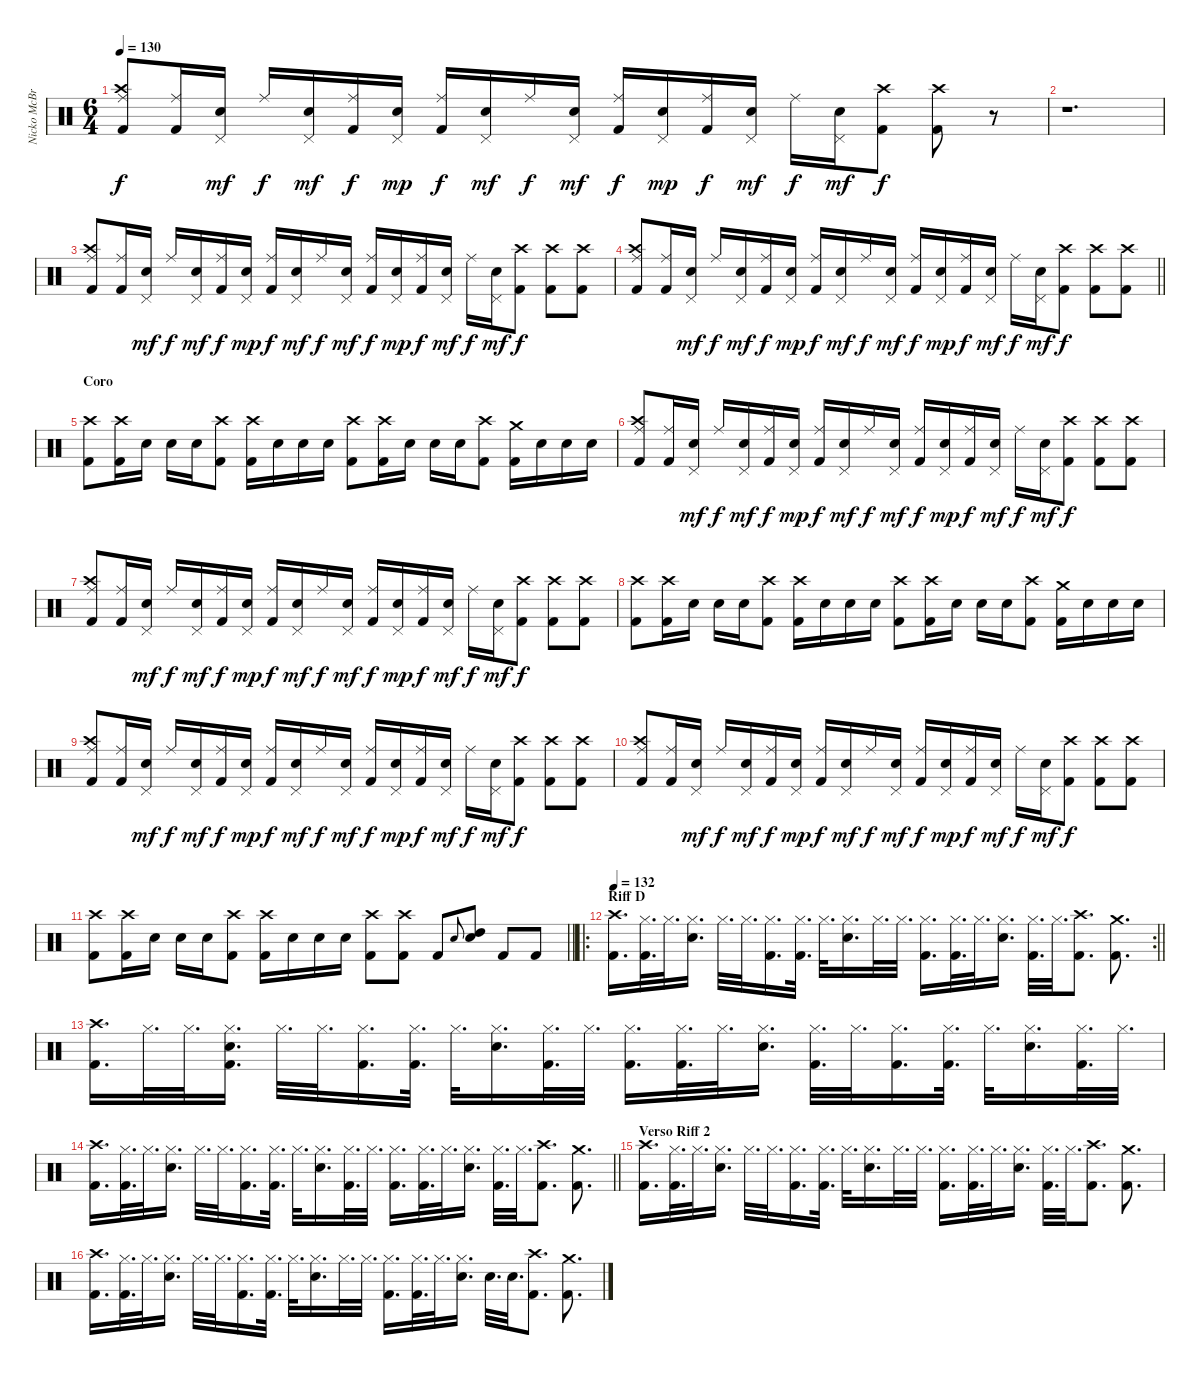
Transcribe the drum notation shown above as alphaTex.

\track ("Nicko McBrain" "Nicko McBr") {instrument percussion}
\staff {score}
\articulation defaults
\ts (6 4)
\tempo 130
\clef neutral
\ks c
("Ride (middle)" "Crash high (hit)" "Kick (hit) 2").8{dy f} ("Ride (middle)" "Kick (hit) 2").16 ("Pedal Hi-Hat (hit)" "Snare (hit) 2").16{dy mf} "Ride (middle)".16{dy f} ("Pedal Hi-Hat (hit)" "Snare (hit) 2").16{dy mf} ("Ride (middle)" "Kick (hit) 2").16{dy f} ("Pedal Hi-Hat (hit)" "Snare (hit) 2").16{dy mp} ("Ride (middle)" "Kick (hit) 2").16{dy f} ("Pedal Hi-Hat (hit)" "Snare (hit) 2").16{dy mf} "Ride (middle)".16{dy f} ("Pedal Hi-Hat (hit)" "Snare (hit) 2").16{dy mf} ("Ride (middle)" "Kick (hit) 2").16{dy f} ("Pedal Hi-Hat (hit)" "Snare (hit) 2").16{dy mp} ("Ride (middle)" "Kick (hit) 2").16{dy f} ("Pedal Hi-Hat (hit)" "Snare (hit) 2").16{dy mf} "Ride (middle)".16{dy f} ("Pedal Hi-Hat (hit)" "Snare (hit) 2").16{dy mf} ("Crash high (hit)" "Kick (hit) 2").8{dy f} ("Crash high (hit)" "Kick (hit) 2").8 r.8 |
r.1{d} |
("Ride (middle)" "Crash high (hit)" "Kick (hit) 2").8 ("Ride (middle)" "Kick (hit) 2").16 ("Pedal Hi-Hat (hit)" "Snare (hit) 2").16{dy mf} "Ride (middle)".16{dy f} ("Pedal Hi-Hat (hit)" "Snare (hit) 2").16{dy mf} ("Ride (middle)" "Kick (hit) 2").16{dy f} ("Pedal Hi-Hat (hit)" "Snare (hit) 2").16{dy mp} ("Ride (middle)" "Kick (hit) 2").16{dy f} ("Pedal Hi-Hat (hit)" "Snare (hit) 2").16{dy mf} "Ride (middle)".16{dy f} ("Pedal Hi-Hat (hit)" "Snare (hit) 2").16{dy mf} ("Ride (middle)" "Kick (hit) 2").16{dy f} ("Pedal Hi-Hat (hit)" "Snare (hit) 2").16{dy mp} ("Ride (middle)" "Kick (hit) 2").16{dy f} ("Pedal Hi-Hat (hit)" "Snare (hit) 2").16{dy mf} "Ride (middle)".16{dy f} ("Pedal Hi-Hat (hit)" "Snare (hit) 2").16{dy mf} ("Crash high (hit)" "Kick (hit) 2").8{dy f} ("Crash high (hit)" "Kick (hit) 2").8 ("Crash high (hit)" "Kick (hit) 2").8 |
\barLineRight lightlight
("Ride (middle)" "Crash high (hit)" "Kick (hit) 2").8 ("Ride (middle)" "Kick (hit) 2").16 ("Pedal Hi-Hat (hit)" "Snare (hit) 2").16{dy mf} "Ride (middle)".16{dy f} ("Pedal Hi-Hat (hit)" "Snare (hit) 2").16{dy mf} ("Ride (middle)" "Kick (hit) 2").16{dy f} ("Pedal Hi-Hat (hit)" "Snare (hit) 2").16{dy mp} ("Ride (middle)" "Kick (hit) 2").16{dy f} ("Pedal Hi-Hat (hit)" "Snare (hit) 2").16{dy mf} "Ride (middle)".16{dy f} ("Pedal Hi-Hat (hit)" "Snare (hit) 2").16{dy mf} ("Ride (middle)" "Kick (hit) 2").16{dy f} ("Pedal Hi-Hat (hit)" "Snare (hit) 2").16{dy mp} ("Ride (middle)" "Kick (hit) 2").16{dy f} ("Pedal Hi-Hat (hit)" "Snare (hit) 2").16{dy mf} "Ride (middle)".16{dy f} ("Pedal Hi-Hat (hit)" "Snare (hit) 2").16{dy mf} ("Crash high (hit)" "Kick (hit) 2").8{dy f} ("Crash high (hit)" "Kick (hit) 2").8 ("Crash high (hit)" "Kick (hit) 2").8 |
\section ("" "Coro")
("Crash high (hit)" "Kick (hit) 2").8 ("Crash high (hit)" "Kick (hit) 2").16 "Snare (hit) 2".16 "Snare (hit) 2".16 "Snare (hit) 2".16 ("Crash high (hit)" "Kick (hit) 2").8 ("Crash high (hit)" "Kick (hit) 2").16 "Snare (hit) 2".16 "Snare (hit) 2".16 "Snare (hit) 2".16 ("Crash high (hit)" "Kick (hit) 2").8 ("Crash high (hit)" "Kick (hit) 2").16 "Snare (hit) 2".16 "Snare (hit) 2".16 "Snare (hit) 2".16 ("Crash high (hit)" "Kick (hit) 2").8 ("Crash medium (hit)" "Kick (hit) 2").16 "Snare (hit) 2".16 "Snare (hit) 2".16 "Snare (hit) 2".16 |
("Ride (middle)" "Crash high (hit)" "Kick (hit) 2").8 ("Ride (middle)" "Kick (hit) 2").16 ("Pedal Hi-Hat (hit)" "Snare (hit) 2").16{dy mf} "Ride (middle)".16{dy f} ("Pedal Hi-Hat (hit)" "Snare (hit) 2").16{dy mf} ("Ride (middle)" "Kick (hit) 2").16{dy f} ("Pedal Hi-Hat (hit)" "Snare (hit) 2").16{dy mp} ("Ride (middle)" "Kick (hit) 2").16{dy f} ("Pedal Hi-Hat (hit)" "Snare (hit) 2").16{dy mf} "Ride (middle)".16{dy f} ("Pedal Hi-Hat (hit)" "Snare (hit) 2").16{dy mf} ("Ride (middle)" "Kick (hit) 2").16{dy f} ("Pedal Hi-Hat (hit)" "Snare (hit) 2").16{dy mp} ("Ride (middle)" "Kick (hit) 2").16{dy f} ("Pedal Hi-Hat (hit)" "Snare (hit) 2").16{dy mf} "Ride (middle)".16{dy f} ("Pedal Hi-Hat (hit)" "Snare (hit) 2").16{dy mf} ("Crash high (hit)" "Kick (hit) 2").8{dy f} ("Crash high (hit)" "Kick (hit) 2").8 ("Crash high (hit)" "Kick (hit) 2").8 |
("Ride (middle)" "Crash high (hit)" "Kick (hit) 2").8 ("Ride (middle)" "Kick (hit) 2").16 ("Pedal Hi-Hat (hit)" "Snare (hit) 2").16{dy mf} "Ride (middle)".16{dy f} ("Pedal Hi-Hat (hit)" "Snare (hit) 2").16{dy mf} ("Ride (middle)" "Kick (hit) 2").16{dy f} ("Pedal Hi-Hat (hit)" "Snare (hit) 2").16{dy mp} ("Ride (middle)" "Kick (hit) 2").16{dy f} ("Pedal Hi-Hat (hit)" "Snare (hit) 2").16{dy mf} "Ride (middle)".16{dy f} ("Pedal Hi-Hat (hit)" "Snare (hit) 2").16{dy mf} ("Ride (middle)" "Kick (hit) 2").16{dy f} ("Pedal Hi-Hat (hit)" "Snare (hit) 2").16{dy mp} ("Ride (middle)" "Kick (hit) 2").16{dy f} ("Pedal Hi-Hat (hit)" "Snare (hit) 2").16{dy mf} "Ride (middle)".16{dy f} ("Pedal Hi-Hat (hit)" "Snare (hit) 2").16{dy mf} ("Crash high (hit)" "Kick (hit) 2").8{dy f} ("Crash high (hit)" "Kick (hit) 2").8 ("Crash high (hit)" "Kick (hit) 2").8 |
("Crash high (hit)" "Kick (hit) 2").8 ("Crash high (hit)" "Kick (hit) 2").16 "Snare (hit) 2".16 "Snare (hit) 2".16 "Snare (hit) 2".16 ("Crash high (hit)" "Kick (hit) 2").8 ("Crash high (hit)" "Kick (hit) 2").16 "Snare (hit) 2".16 "Snare (hit) 2".16 "Snare (hit) 2".16 ("Crash high (hit)" "Kick (hit) 2").8 ("Crash high (hit)" "Kick (hit) 2").16 "Snare (hit) 2".16 "Snare (hit) 2".16 "Snare (hit) 2".16 ("Crash high (hit)" "Kick (hit) 2").8 ("Crash medium (hit)" "Kick (hit) 2").16 "Snare (hit) 2".16 "Snare (hit) 2".16 "Snare (hit) 2".16 |
("Ride (middle)" "Crash high (hit)" "Kick (hit) 2").8 ("Ride (middle)" "Kick (hit) 2").16 ("Pedal Hi-Hat (hit)" "Snare (hit) 2").16{dy mf} "Ride (middle)".16{dy f} ("Pedal Hi-Hat (hit)" "Snare (hit) 2").16{dy mf} ("Ride (middle)" "Kick (hit) 2").16{dy f} ("Pedal Hi-Hat (hit)" "Snare (hit) 2").16{dy mp} ("Ride (middle)" "Kick (hit) 2").16{dy f} ("Pedal Hi-Hat (hit)" "Snare (hit) 2").16{dy mf} "Ride (middle)".16{dy f} ("Pedal Hi-Hat (hit)" "Snare (hit) 2").16{dy mf} ("Ride (middle)" "Kick (hit) 2").16{dy f} ("Pedal Hi-Hat (hit)" "Snare (hit) 2").16{dy mp} ("Ride (middle)" "Kick (hit) 2").16{dy f} ("Pedal Hi-Hat (hit)" "Snare (hit) 2").16{dy mf} "Ride (middle)".16{dy f} ("Pedal Hi-Hat (hit)" "Snare (hit) 2").16{dy mf} ("Crash high (hit)" "Kick (hit) 2").8{dy f} ("Crash high (hit)" "Kick (hit) 2").8 ("Crash high (hit)" "Kick (hit) 2").8 |
("Ride (middle)" "Crash high (hit)" "Kick (hit) 2").8 ("Ride (middle)" "Kick (hit) 2").16 ("Pedal Hi-Hat (hit)" "Snare (hit) 2").16{dy mf} "Ride (middle)".16{dy f} ("Pedal Hi-Hat (hit)" "Snare (hit) 2").16{dy mf} ("Ride (middle)" "Kick (hit) 2").16{dy f} ("Pedal Hi-Hat (hit)" "Snare (hit) 2").16{dy mp} ("Ride (middle)" "Kick (hit) 2").16{dy f} ("Pedal Hi-Hat (hit)" "Snare (hit) 2").16{dy mf} "Ride (middle)".16{dy f} ("Pedal Hi-Hat (hit)" "Snare (hit) 2").16{dy mf} ("Ride (middle)" "Kick (hit) 2").16{dy f} ("Pedal Hi-Hat (hit)" "Snare (hit) 2").16{dy mp} ("Ride (middle)" "Kick (hit) 2").16{dy f} ("Pedal Hi-Hat (hit)" "Snare (hit) 2").16{dy mf} "Ride (middle)".16{dy f} ("Pedal Hi-Hat (hit)" "Snare (hit) 2").16{dy mf} ("Crash high (hit)" "Kick (hit) 2").8{dy f} ("Crash high (hit)" "Kick (hit) 2").8 ("Crash high (hit)" "Kick (hit) 2").8 |
\barLineRight lightlight
("Crash high (hit)" "Kick (hit) 2").8 ("Crash high (hit)" "Kick (hit) 2").16 "Snare (hit) 2".16 "Snare (hit) 2".16 "Snare (hit) 2".16 ("Crash high (hit)" "Kick (hit) 2").8 ("Crash high (hit)" "Kick (hit) 2").16 "Snare (hit) 2".16 "Snare (hit) 2".16 "Snare (hit) 2".16 ("Crash high (hit)" "Kick (hit) 2").8 ("Crash high (hit)" "Kick (hit) 2").8 "Kick (hit) 2".8 "Snare (hit) 2".8{gr onbeat} ("Snare (hit) 2" "High Tom (hit)").8 "Kick (hit) 2".8 "Kick (hit) 2".8 |
\ro
\rc 2
\section ("" "Riff D")
\tempo 132
\barLineRight lightlight
("Crash high (hit)" "Kick (hit) 2").16{d} ("Hi-Hat (closed)" "Kick (hit) 2").32{d} "Hi-Hat (closed)".32{d} ("Hi-Hat (closed)" "Snare (hit) 2").16{d} "Hi-Hat (closed)".32{d} "Hi-Hat (closed)".32{d} ("Hi-Hat (closed)" "Kick (hit) 2").16{d} ("Hi-Hat (closed)" "Kick (hit) 2").32{d} "Hi-Hat (closed)".32{d} ("Hi-Hat (closed)" "Snare (hit) 2").16{d} "Hi-Hat (closed)".32{d} "Hi-Hat (closed)".32{d} ("Hi-Hat (closed)" "Kick (hit) 2").16{d} ("Hi-Hat (closed)" "Kick (hit) 2").32{d} "Hi-Hat (closed)".32{d} ("Hi-Hat (closed)" "Snare (hit) 2").16{d} ("Hi-Hat (closed)" "Kick (hit) 2").32{d} "Hi-Hat (closed)".32{d} ("Crash high (hit)" "Kick (hit) 2").8{d} ("Crash medium (hit)" "Kick (hit) 2").8{d} |
("Crash high (hit)" "Kick (hit) 2").16{d} "Hi-Hat (closed)".32{d} "Hi-Hat (closed)".32{d} ("Hi-Hat (closed)" "Snare (hit) 2" "Kick (hit) 2").16{d} "Hi-Hat (closed)".32{d} "Hi-Hat (closed)".32{d} ("Hi-Hat (closed)" "Kick (hit) 2").16{d} ("Hi-Hat (closed)" "Kick (hit) 2").32{d} "Hi-Hat (closed)".32{d} ("Hi-Hat (closed)" "Snare (hit) 2").16{d} ("Hi-Hat (closed)" "Kick (hit) 2").32{d} "Hi-Hat (closed)".32{d} ("Hi-Hat (closed)" "Kick (hit) 2").16{d} ("Hi-Hat (closed)" "Kick (hit) 2").32{d} "Hi-Hat (closed)".32{d} ("Hi-Hat (closed)" "Snare (hit) 2").16{d} ("Hi-Hat (closed)" "Kick (hit) 2").32{d} "Hi-Hat (closed)".32{d} ("Hi-Hat (closed)" "Kick (hit) 2").16{d} ("Hi-Hat (closed)" "Kick (hit) 2").32{d} "Hi-Hat (closed)".32{d} ("Hi-Hat (closed)" "Snare (hit) 2").16{d} ("Hi-Hat (closed)" "Kick (hit) 2").32{d} "Hi-Hat (closed)".32{d} |
\barLineRight lightlight
("Crash high (hit)" "Kick (hit) 2").16{d} ("Hi-Hat (closed)" "Kick (hit) 2").32{d} "Hi-Hat (closed)".32{d} ("Hi-Hat (closed)" "Snare (hit) 2").16{d} "Hi-Hat (closed)".32{d} "Hi-Hat (closed)".32{d} ("Hi-Hat (closed)" "Kick (hit) 2").16{d} ("Hi-Hat (closed)" "Kick (hit) 2").32{d} "Hi-Hat (closed)".32{d} ("Hi-Hat (closed)" "Snare (hit) 2").16{d} ("Hi-Hat (closed)" "Kick (hit) 2").32{d} "Hi-Hat (closed)".32{d} ("Hi-Hat (closed)" "Kick (hit) 2").16{d} ("Hi-Hat (closed)" "Kick (hit) 2").32{d} "Hi-Hat (closed)".32{d} ("Hi-Hat (closed)" "Snare (hit) 2").16{d} ("Hi-Hat (closed)" "Kick (hit) 2").32{d} "Hi-Hat (closed)".32{d} ("Crash high (hit)" "Kick (hit) 2").8{d} ("Crash medium (hit)" "Kick (hit) 2").8{d} |
\section ("" "Verso Riff 2")
("Crash high (hit)" "Kick (hit) 2").16{d} ("Hi-Hat (closed)" "Kick (hit) 2").32{d} "Hi-Hat (closed)".32{d} ("Hi-Hat (closed)" "Snare (hit) 2").16{d} "Hi-Hat (closed)".32{d} "Hi-Hat (closed)".32{d} ("Hi-Hat (closed)" "Kick (hit) 2").16{d} ("Hi-Hat (closed)" "Kick (hit) 2").32{d} "Hi-Hat (closed)".32{d} ("Hi-Hat (closed)" "Snare (hit) 2").16{d} "Hi-Hat (closed)".32{d} "Hi-Hat (closed)".32{d} ("Hi-Hat (closed)" "Kick (hit) 2").16{d} ("Hi-Hat (closed)" "Kick (hit) 2").32{d} "Hi-Hat (closed)".32{d} ("Hi-Hat (closed)" "Snare (hit) 2").16{d} ("Hi-Hat (closed)" "Kick (hit) 2").32{d} "Hi-Hat (closed)".32{d} ("Crash high (hit)" "Kick (hit) 2").8{d} ("Crash medium (hit)" "Kick (hit) 2").8{d} |
("Crash high (hit)" "Kick (hit) 2").16{d} ("Hi-Hat (closed)" "Kick (hit) 2").32{d} "Hi-Hat (closed)".32{d} ("Hi-Hat (closed)" "Snare (hit) 2").16{d} "Hi-Hat (closed)".32{d} "Hi-Hat (closed)".32{d} ("Hi-Hat (closed)" "Kick (hit) 2").16{d} ("Hi-Hat (closed)" "Kick (hit) 2").32{d} "Hi-Hat (closed)".32{d} ("Hi-Hat (closed)" "Snare (hit) 2").16{d} "Hi-Hat (closed)".32{d} "Hi-Hat (closed)".32{d} ("Hi-Hat (closed)" "Kick (hit) 2").16{d} ("Hi-Hat (closed)" "Kick (hit) 2").32{d} "Hi-Hat (closed)".32{d} ("Hi-Hat (closed)" "Snare (hit) 2").16{d} "Snare (hit) 2".32{d} "Snare (hit) 2".32{d} ("Crash high (hit)" "Kick (hit) 2").8{d} ("Crash medium (hit)" "Kick (hit) 2").8{d}
